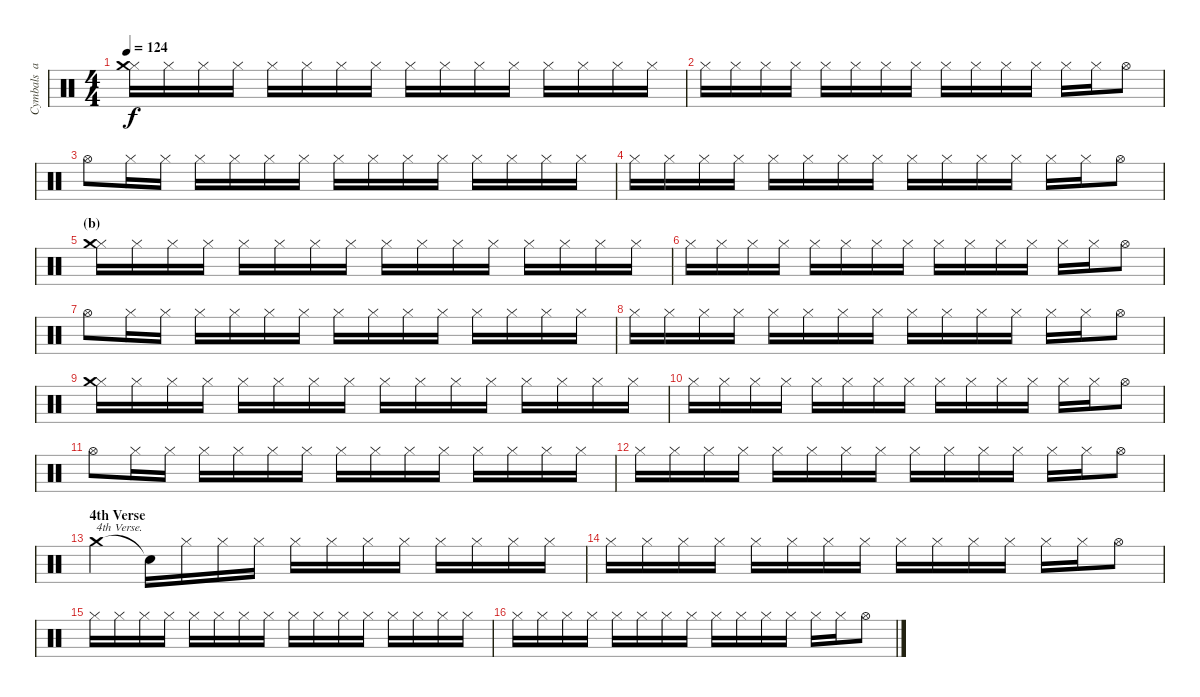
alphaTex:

\track ("Cymbals  and Hi-hat" "Cymbals  a") {instrument percussion}
\staff {score}
\articulation defaults
\ts (4 4)
\tempo 124
\clef neutral
\ks c
("Hi-Hat (closed)" "Crash medium (hit)").16{dy f} "Hi-Hat (closed)".16 "Hi-Hat (closed)".16 "Hi-Hat (closed)".16 "Hi-Hat (closed)".16 "Hi-Hat (closed)".16 "Hi-Hat (closed)".16 "Hi-Hat (closed)".16 "Hi-Hat (closed)".16 "Hi-Hat (closed)".16 "Hi-Hat (closed)".16 "Hi-Hat (closed)".16 "Hi-Hat (closed)".16 "Hi-Hat (closed)".16 "Hi-Hat (closed)".16 "Hi-Hat (closed)".16 |
"Hi-Hat (closed)".16 "Hi-Hat (closed)".16 "Hi-Hat (closed)".16 "Hi-Hat (closed)".16 "Hi-Hat (closed)".16 "Hi-Hat (closed)".16 "Hi-Hat (closed)".16 "Hi-Hat (closed)".16 "Hi-Hat (closed)".16 "Hi-Hat (closed)".16 "Hi-Hat (closed)".16 "Hi-Hat (closed)".16 "Hi-Hat (closed)".16 "Hi-Hat (closed)".16 "Hi-Hat (open)".8 |
"Hi-Hat (open)".8 "Hi-Hat (closed)".16 "Hi-Hat (closed)".16 "Hi-Hat (closed)".16 "Hi-Hat (closed)".16 "Hi-Hat (closed)".16 "Hi-Hat (closed)".16 "Hi-Hat (closed)".16 "Hi-Hat (closed)".16 "Hi-Hat (closed)".16 "Hi-Hat (closed)".16 "Hi-Hat (closed)".16 "Hi-Hat (closed)".16 "Hi-Hat (closed)".16 "Hi-Hat (closed)".16 |
"Hi-Hat (closed)".16 "Hi-Hat (closed)".16 "Hi-Hat (closed)".16 "Hi-Hat (closed)".16 "Hi-Hat (closed)".16 "Hi-Hat (closed)".16 "Hi-Hat (closed)".16 "Hi-Hat (closed)".16 "Hi-Hat (closed)".16 "Hi-Hat (closed)".16 "Hi-Hat (closed)".16 "Hi-Hat (closed)".16 "Hi-Hat (closed)".16 "Hi-Hat (closed)".16 "Hi-Hat (open)".8 |
\section ("" "(b)")
("Hi-Hat (closed)" "Crash medium (hit)").16 "Hi-Hat (closed)".16 "Hi-Hat (closed)".16 "Hi-Hat (closed)".16 "Hi-Hat (closed)".16 "Hi-Hat (closed)".16 "Hi-Hat (closed)".16 "Hi-Hat (closed)".16 "Hi-Hat (closed)".16 "Hi-Hat (closed)".16 "Hi-Hat (closed)".16 "Hi-Hat (closed)".16 "Hi-Hat (closed)".16 "Hi-Hat (closed)".16 "Hi-Hat (closed)".16 "Hi-Hat (closed)".16 |
"Hi-Hat (closed)".16 "Hi-Hat (closed)".16 "Hi-Hat (closed)".16 "Hi-Hat (closed)".16 "Hi-Hat (closed)".16 "Hi-Hat (closed)".16 "Hi-Hat (closed)".16 "Hi-Hat (closed)".16 "Hi-Hat (closed)".16 "Hi-Hat (closed)".16 "Hi-Hat (closed)".16 "Hi-Hat (closed)".16 "Hi-Hat (closed)".16 "Hi-Hat (closed)".16 "Hi-Hat (open)".8 |
"Hi-Hat (open)".8 "Hi-Hat (closed)".16 "Hi-Hat (closed)".16 "Hi-Hat (closed)".16 "Hi-Hat (closed)".16 "Hi-Hat (closed)".16 "Hi-Hat (closed)".16 "Hi-Hat (closed)".16 "Hi-Hat (closed)".16 "Hi-Hat (closed)".16 "Hi-Hat (closed)".16 "Hi-Hat (closed)".16 "Hi-Hat (closed)".16 "Hi-Hat (closed)".16 "Hi-Hat (closed)".16 |
"Hi-Hat (closed)".16 "Hi-Hat (closed)".16 "Hi-Hat (closed)".16 "Hi-Hat (closed)".16 "Hi-Hat (closed)".16 "Hi-Hat (closed)".16 "Hi-Hat (closed)".16 "Hi-Hat (closed)".16 "Hi-Hat (closed)".16 "Hi-Hat (closed)".16 "Hi-Hat (closed)".16 "Hi-Hat (closed)".16 "Hi-Hat (closed)".16 "Hi-Hat (closed)".16 "Hi-Hat (open)".8 |
("Hi-Hat (closed)" "Crash medium (hit)").16 "Hi-Hat (closed)".16 "Hi-Hat (closed)".16 "Hi-Hat (closed)".16 "Hi-Hat (closed)".16 "Hi-Hat (closed)".16 "Hi-Hat (closed)".16 "Hi-Hat (closed)".16 "Hi-Hat (closed)".16 "Hi-Hat (closed)".16 "Hi-Hat (closed)".16 "Hi-Hat (closed)".16 "Hi-Hat (closed)".16 "Hi-Hat (closed)".16 "Hi-Hat (closed)".16 "Hi-Hat (closed)".16 |
"Hi-Hat (closed)".16 "Hi-Hat (closed)".16 "Hi-Hat (closed)".16 "Hi-Hat (closed)".16 "Hi-Hat (closed)".16 "Hi-Hat (closed)".16 "Hi-Hat (closed)".16 "Hi-Hat (closed)".16 "Hi-Hat (closed)".16 "Hi-Hat (closed)".16 "Hi-Hat (closed)".16 "Hi-Hat (closed)".16 "Hi-Hat (closed)".16 "Hi-Hat (closed)".16 "Hi-Hat (open)".8 |
"Hi-Hat (open)".8 "Hi-Hat (closed)".16 "Hi-Hat (closed)".16 "Hi-Hat (closed)".16 "Hi-Hat (closed)".16 "Hi-Hat (closed)".16 "Hi-Hat (closed)".16 "Hi-Hat (closed)".16 "Hi-Hat (closed)".16 "Hi-Hat (closed)".16 "Hi-Hat (closed)".16 "Hi-Hat (closed)".16 "Hi-Hat (closed)".16 "Hi-Hat (closed)".16 "Hi-Hat (closed)".16 |
"Hi-Hat (closed)".16 "Hi-Hat (closed)".16 "Hi-Hat (closed)".16 "Hi-Hat (closed)".16 "Hi-Hat (closed)".16 "Hi-Hat (closed)".16 "Hi-Hat (closed)".16 "Hi-Hat (closed)".16 "Hi-Hat (closed)".16 "Hi-Hat (closed)".16 "Hi-Hat (closed)".16 "Hi-Hat (closed)".16 "Hi-Hat (closed)".16 "Hi-Hat (closed)".16 "Hi-Hat (open)".8 |
\section ("" "4th Verse")
"Crash medium (hit)".4{txt "4th Verse."} "Snare (hit)"{t}.16 "Hi-Hat (closed)".16 "Hi-Hat (closed)".16 "Hi-Hat (closed)".16 "Hi-Hat (closed)".16 "Hi-Hat (closed)".16 "Hi-Hat (closed)".16 "Hi-Hat (closed)".16 "Hi-Hat (closed)".16 "Hi-Hat (closed)".16 "Hi-Hat (closed)".16 "Hi-Hat (closed)".16 |
"Hi-Hat (closed)".16 "Hi-Hat (closed)".16 "Hi-Hat (closed)".16 "Hi-Hat (closed)".16 "Hi-Hat (closed)".16 "Hi-Hat (closed)".16 "Hi-Hat (closed)".16 "Hi-Hat (closed)".16 "Hi-Hat (closed)".16 "Hi-Hat (closed)".16 "Hi-Hat (closed)".16 "Hi-Hat (closed)".16 "Hi-Hat (closed)".16 "Hi-Hat (closed)".16 "Hi-Hat (open)".8 |
"Hi-Hat (closed)".16 "Hi-Hat (closed)".16 "Hi-Hat (closed)".16 "Hi-Hat (closed)".16 "Hi-Hat (closed)".16 "Hi-Hat (closed)".16 "Hi-Hat (closed)".16 "Hi-Hat (closed)".16 "Hi-Hat (closed)".16 "Hi-Hat (closed)".16 "Hi-Hat (closed)".16 "Hi-Hat (closed)".16 "Hi-Hat (closed)".16 "Hi-Hat (closed)".16 "Hi-Hat (closed)".16 "Hi-Hat (closed)".16 |
"Hi-Hat (closed)".16 "Hi-Hat (closed)".16 "Hi-Hat (closed)".16 "Hi-Hat (closed)".16 "Hi-Hat (closed)".16 "Hi-Hat (closed)".16 "Hi-Hat (closed)".16 "Hi-Hat (closed)".16 "Hi-Hat (closed)".16 "Hi-Hat (closed)".16 "Hi-Hat (closed)".16 "Hi-Hat (closed)".16 "Hi-Hat (closed)".16 "Hi-Hat (closed)".16 "Hi-Hat (open)".8
